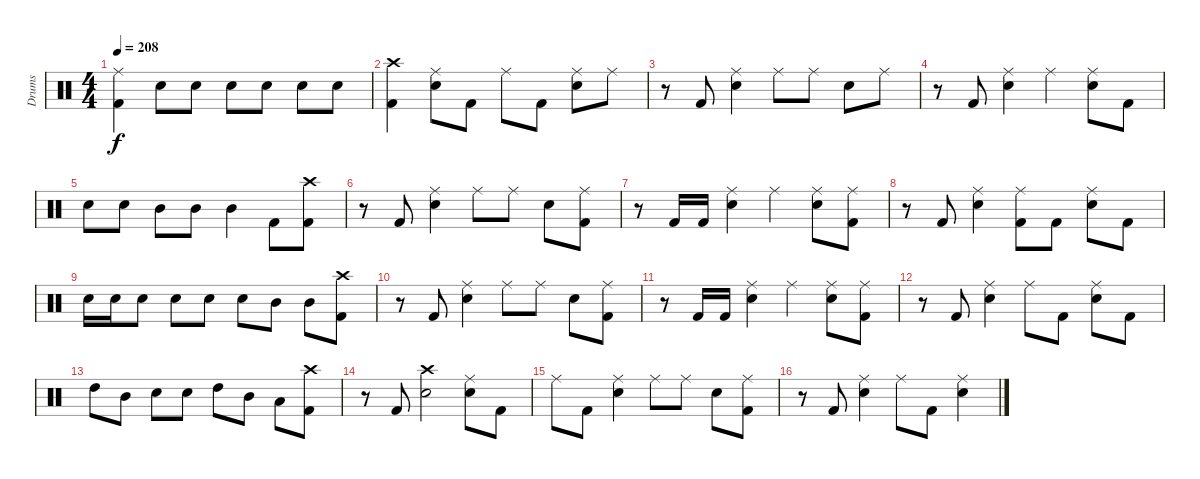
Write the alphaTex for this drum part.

\track ("Drums" "Drums") {instrument percussion}
\staff {score}
\articulation defaults
\ts (4 4)
\tempo 208
\clef neutral
\ks c
("Ride (middle)" "Kick (hit) 2").4{dy f} "Electric Snare (hit)".8 "Electric Snare (hit)".8 "Electric Snare (hit)".8 "Electric Snare (hit)".8 "Electric Snare (hit)".8 "Electric Snare (hit)".8 |
("Crash high (hit)" "Kick (hit) 2").4 ("Ride (middle)" "Electric Snare (hit)").8 "Kick (hit) 2".8 "Ride (middle)".8 "Kick (hit) 2".8 ("Ride (middle)" "Electric Snare (hit)").8 "Ride (middle)".8 |
r.8 "Kick (hit) 2".8 ("Ride (middle)" "Electric Snare (hit)").4 "Ride (middle)".8 "Ride (middle)".8 "Electric Snare (hit)".8 "Ride (middle)".8 |
r.8 "Kick (hit) 2".8 ("Ride (middle)" "Electric Snare (hit)").4 "Ride (middle)".4 ("Ride (middle)" "Electric Snare (hit)").8 "Kick (hit) 2".8 |
"Electric Snare (hit)".8 "Electric Snare (hit)".8 "Mid Tom (hit)".8 "Mid Tom (hit)".8 "Mid Tom (hit)".4 "Kick (hit) 2".8 ("Crash high (hit)" "Kick (hit) 2").8 |
r.8 "Kick (hit) 2".8 ("Ride (middle)" "Electric Snare (hit)").4 "Ride (middle)".8 "Ride (middle)".8 "Electric Snare (hit)".8 ("Ride (middle)" "Kick (hit) 2").8 |
r.8 "Kick (hit) 2".16 "Kick (hit) 2".16 ("Ride (middle)" "Electric Snare (hit)").4 "Ride (middle)".4 ("Ride (middle)" "Electric Snare (hit)").8 ("Ride (middle)" "Kick (hit) 2").8 |
r.8 "Kick (hit) 2".8 ("Ride (middle)" "Electric Snare (hit)").4 ("Ride (middle)" "Kick (hit) 2").8 "Kick (hit) 2".8 ("Ride (middle)" "Electric Snare (hit)").8 "Kick (hit) 2".8 |
"Electric Snare (hit)".16 "Electric Snare (hit)".16 "Electric Snare (hit)".8 "Electric Snare (hit)".8 "Electric Snare (hit)".8 "Electric Snare (hit)".8 "Mid Tom (hit)".8 "Mid Tom (hit)".8 ("Crash high (hit)" "Kick (hit) 2").8 |
r.8 "Kick (hit) 2".8 ("Ride (middle)" "Electric Snare (hit)").4 "Ride (middle)".8 "Ride (middle)".8 "Electric Snare (hit)".8 ("Ride (middle)" "Kick (hit) 2").8 |
r.8 "Kick (hit) 2".16 "Kick (hit) 2".16 ("Ride (middle)" "Electric Snare (hit)").4 "Ride (middle)".4 ("Ride (middle)" "Electric Snare (hit)").8 ("Ride (middle)" "Kick (hit) 2").8 |
r.8 "Kick (hit) 2".8 ("Ride (middle)" "Electric Snare (hit)").4 "Ride (middle)".8 "Kick (hit) 2".8 ("Ride (middle)" "Electric Snare (hit)").8 "Kick (hit) 2".8 |
"High Tom (hit)".8 "Mid Tom (hit)".8 "Electric Snare (hit)".8 "Electric Snare (hit)".8 "High Tom (hit)".8 "Mid Tom (hit)".8 "Low Tom (hit)".8 ("Crash high (hit)" "Kick (hit) 2").8 |
r.8 "Kick (hit) 2".8 ("Crash high (hit)" "Electric Snare (hit)").2 ("Ride (middle)" "Electric Snare (hit)").8 "Kick (hit) 2".8 |
"Ride (middle)".8 "Kick (hit) 2".8 ("Ride (middle)" "Electric Snare (hit)").4 "Ride (middle)".8 "Ride (middle)".8 "Electric Snare (hit)".8 ("Ride (middle)" "Kick (hit) 2").8 |
r.8 "Kick (hit) 2".8 ("Ride (middle)" "Electric Snare (hit)").4 "Ride (middle)".8 "Kick (hit) 2".8 ("Ride (middle)" "Electric Snare (hit)").4
